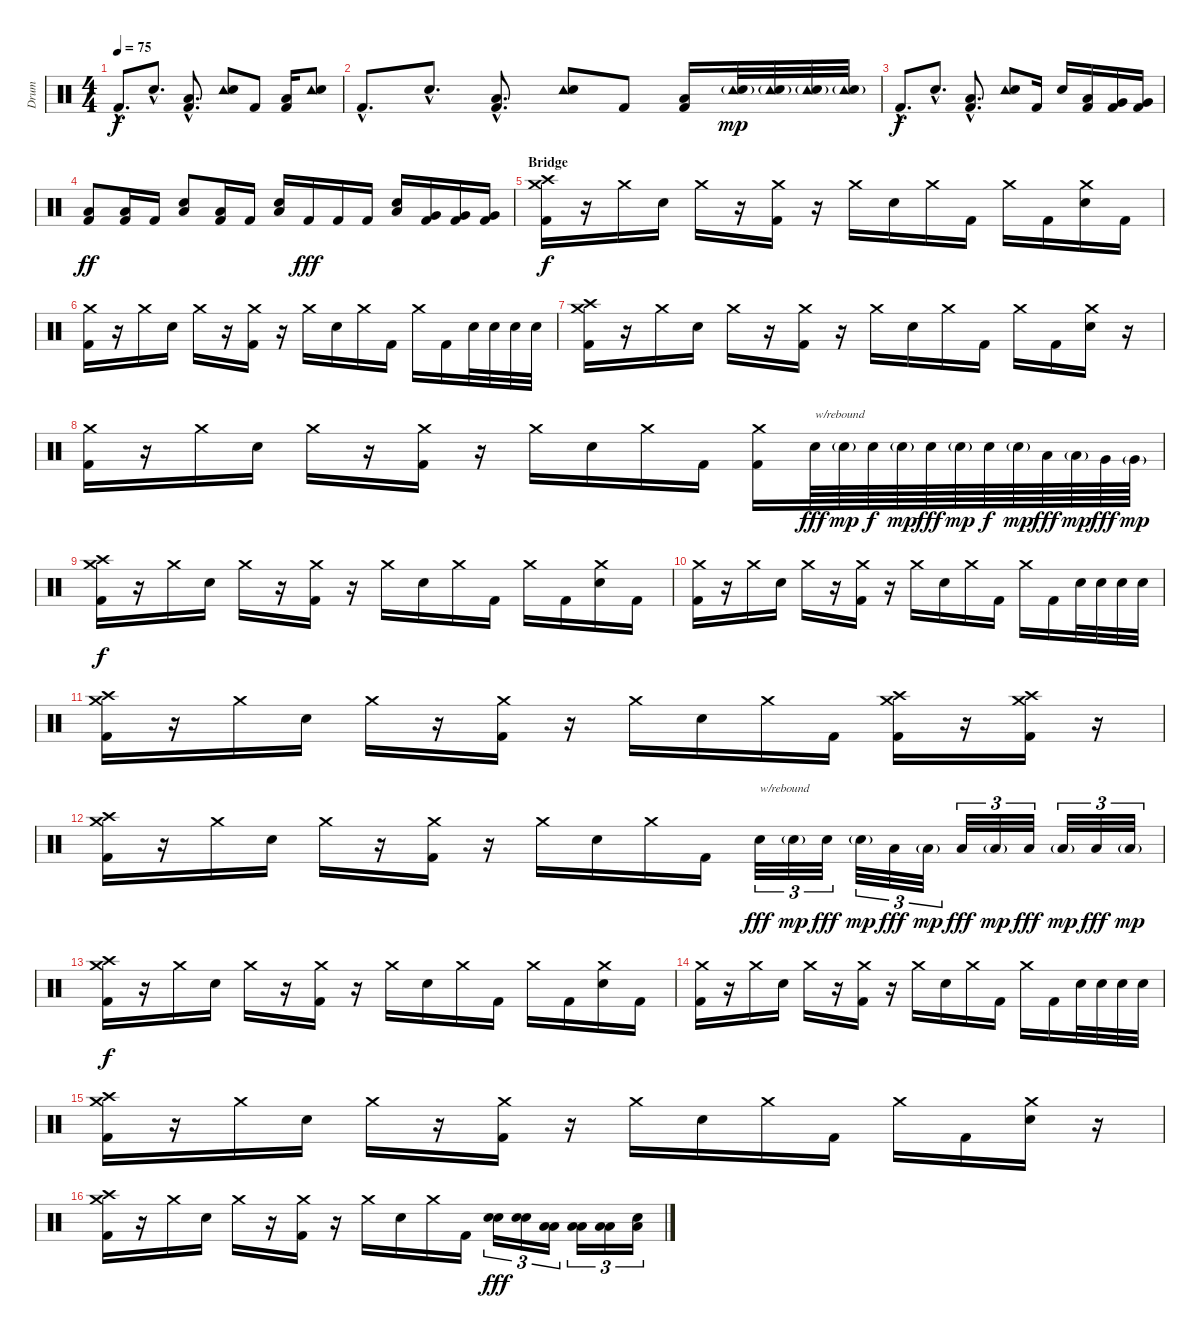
\track ("Drum" "Drum") {instrument percussion}
\staff {score}
\articulation defaults
\ts (4 4)
\tempo 75
\clef neutral
\ks c "Kick (hit) 2"{hac}.8{d dy f} "Snare (hit) 2"{hac}.8{d}
("Low Floor Tom (hit)"{hac} "Kick (hit) 2"{hac}).8{d} ("Tambourine (hit)" "Snare (hit) 2").8 "Kick (hit) 2".8 ("Low Tom (hit)" "Kick (hit) 2").16 ("Tambourine (hit)" "Snare (hit) 2").8 |
"Kick (hit) 2"{hac}.8{d} "Snare (hit) 2"{hac}.8{d} ("Low Floor Tom (hit)"{hac} "Kick (hit) 2"{hac}).8{d} ("Tambourine (hit)" "Snare (hit) 2").8 "Kick (hit) 2".8 ("Low Tom (hit)" "Kick (hit) 2").16 ("Tambourine (hit)" "Electric Snare (hit)"{g}).32{dy mp} ("Tambourine (hit)" "Electric Snare (hit)"{g}).32 ("Tambourine (hit)" "Electric Snare (hit)"{g}).32 ("Tambourine (hit)" "Electric Snare (hit)"{g}).32 |
"Kick (hit) 2"{hac}.8{d dy f} "Snare (hit) 2"{hac}.8{d} ("Low Floor Tom (hit)"{hac} "Kick (hit) 2"{hac}).8{d} ("Tambourine (hit)" "Snare (hit) 2").8 "Kick (hit) 2".16 "Snare (hit) 2".16 ("Low Tom (hit)" "Kick (hit) 2").16 ("Very Low Tom (hit)" "Kick (hit) 2").16 ("Very Low Tom (hit)" "Kick (hit) 2").16 |
("Low Tom (hit)" "Kick (hit) 2").8{dy ff} ("Low Tom (hit)" "Kick (hit) 2").16 "Kick (hit) 2".16 ("Low Tom (hit)" "Snare (hit) 2").8 ("Low Tom (hit)" "Kick (hit) 2").16 "Kick (hit) 2".16 ("Low Tom (hit)" "Snare (hit) 2").16 "Kick (hit) 2".16{dy fff} "Kick (hit) 2".16 "Kick (hit) 2".16 ("Low Tom (hit)" "Snare (hit) 2").16 ("Very Low Tom (hit)" "Kick (hit) 2").16 ("Very Low Tom (hit)" "Kick (hit) 2").16 ("Very Low Tom (hit)" "Kick (hit) 2").16 |
\section ("" "Bridge")
("Crash high (hit)" "Crash medium (hit)" "Kick (hit) 2").16{dy f volume 13} r.16 "Crash medium (hit)".16 "Snare (hit) 2".16 "Crash medium (hit)".16 r.16 ("Crash medium (hit)" "Kick (hit) 2").16 r.16 "Crash medium (hit)".16 "Snare (hit) 2".16 "Crash medium (hit)".16 "Kick (hit) 2".16 "Crash medium (hit)".16 "Kick (hit) 2".16 ("Crash medium (hit)" "Snare (hit) 2").16 "Kick (hit) 2".16 |
("Crash medium (hit)" "Kick (hit) 2").16 r.16 "Crash medium (hit)".16 "Snare (hit) 2".16 "Crash medium (hit)".16 r.16 ("Crash medium (hit)" "Kick (hit) 2").16 r.16 "Crash medium (hit)".16 "Snare (hit) 2".16 "Crash medium (hit)".16 "Kick (hit) 2".16 "Crash medium (hit)".16 "Kick (hit) 2".16 "Snare (hit) 2".32 "Snare (hit) 2".32 "Snare (hit) 2".32 "Snare (hit) 2".32 |
("Crash high (hit)" "Crash medium (hit)" "Kick (hit) 2").16 r.16 "Crash medium (hit)".16 "Snare (hit) 2".16 "Crash medium (hit)".16 r.16 ("Crash medium (hit)" "Kick (hit) 2").16 r.16 "Crash medium (hit)".16 "Snare (hit) 2".16 "Crash medium (hit)".16 "Kick (hit) 2".16 "Crash medium (hit)".16 "Kick (hit) 2".16 ("Crash medium (hit)" "Snare (hit) 2").16 r.16 |
("Crash medium (hit)" "Kick (hit) 2").16 r.16 "Crash medium (hit)".16 "Snare (hit) 2".16 "Crash medium (hit)".16 r.16 ("Crash medium (hit)" "Kick (hit) 2").16 r.16 "Crash medium (hit)".16 "Snare (hit) 2".16 "Crash medium (hit)".16 "Kick (hit) 2".16 ("Crash medium (hit)" "Kick (hit) 2").16 "Snare (hit) 2".64{txt "w/rebound" dy fff} "Snare (hit) 2"{g}.64{dy mp} "Snare (hit) 2".64{dy f} "Snare (hit) 2"{g}.64{dy mp} "Snare (hit) 2".64{dy fff} "Snare (hit) 2"{g}.64{dy mp} "Snare (hit) 2".64{dy f} "Snare (hit) 2"{g}.64{dy mp} "Low Tom (hit)".64{dy fff} "Low Tom (hit)"{g}.64{dy mp} "Very Low Tom (hit)".64{dy fff} "Very Low Tom (hit)"{g}.64{dy mp} |
("Crash high (hit)" "Crash medium (hit)" "Kick (hit) 2").16{dy f volume 13} r.16 "Crash medium (hit)".16 "Snare (hit) 2".16 "Crash medium (hit)".16 r.16 ("Crash medium (hit)" "Kick (hit) 2").16 r.16 "Crash medium (hit)".16 "Snare (hit) 2".16 "Crash medium (hit)".16 "Kick (hit) 2".16 "Crash medium (hit)".16 "Kick (hit) 2".16 ("Crash medium (hit)" "Snare (hit) 2").16 "Kick (hit) 2".16 |
("Crash medium (hit)" "Kick (hit) 2").16 r.16 "Crash medium (hit)".16 "Snare (hit) 2".16 "Crash medium (hit)".16 r.16 ("Crash medium (hit)" "Kick (hit) 2").16 r.16 "Crash medium (hit)".16 "Snare (hit) 2".16 "Crash medium (hit)".16 "Kick (hit) 2".16 "Crash medium (hit)".16 "Kick (hit) 2".16 "Snare (hit) 2".32 "Snare (hit) 2".32 "Snare (hit) 2".32 "Snare (hit) 2".32 |
("Crash high (hit)" "Crash medium (hit)" "Kick (hit) 2").16 r.16 "Crash medium (hit)".16 "Snare (hit) 2".16 "Crash medium (hit)".16 r.16 ("Crash medium (hit)" "Kick (hit) 2").16 r.16 "Crash medium (hit)".16 "Snare (hit) 2".16 "Crash medium (hit)".16 "Kick (hit) 2".16 ("Crash high (hit)" "Crash medium (hit)" "Kick (hit) 2").16 r.16 ("Crash high (hit)" "Crash medium (hit)" "Kick (hit) 2").16 r.16 |
("Crash high (hit)" "Crash medium (hit)" "Kick (hit) 2").16 r.16 "Crash medium (hit)".16 "Snare (hit) 2".16 "Crash medium (hit)".16 r.16 ("Crash medium (hit)" "Kick (hit) 2").16 r.16 "Crash medium (hit)".16 "Snare (hit) 2".16 "Crash medium (hit)".16 "Kick (hit) 2".16 "Snare (hit) 2".32{tu (3 2) txt "w/rebound" dy fff} "Snare (hit) 2"{g}.32{tu (3 2) dy mp} "Snare (hit) 2".32{tu (3 2) dy fff} "Snare (hit) 2"{g}.32{tu (3 2) dy mp} "Low Tom (hit)".32{tu (3 2) dy fff} "Low Tom (hit)"{g}.32{tu (3 2) dy mp} "Low Tom (hit)".32{tu (3 2) dy fff} "Low Tom (hit)"{g}.32{tu (3 2) dy mp} "Low Floor Tom (hit)".32{tu (3 2) dy fff} "Low Floor Tom (hit)"{g}.32{tu (3 2) dy mp} "Low Floor Tom (hit)".32{tu (3 2) dy fff} "Low Floor Tom (hit)"{g}.32{tu (3 2) dy mp} |
("Crash high (hit)" "Crash medium (hit)" "Kick (hit) 2").16{dy f volume 13} r.16 "Crash medium (hit)".16 "Snare (hit) 2".16 "Crash medium (hit)".16 r.16 ("Crash medium (hit)" "Kick (hit) 2").16 r.16 "Crash medium (hit)".16 "Snare (hit) 2".16 "Crash medium (hit)".16 "Kick (hit) 2".16 "Crash medium (hit)".16 "Kick (hit) 2".16 ("Crash medium (hit)" "Snare (hit) 2").16 "Kick (hit) 2".16 |
("Crash medium (hit)" "Kick (hit) 2").16 r.16 "Crash medium (hit)".16 "Snare (hit) 2".16 "Crash medium (hit)".16 r.16 ("Crash medium (hit)" "Kick (hit) 2").16 r.16 "Crash medium (hit)".16 "Snare (hit) 2".16 "Crash medium (hit)".16 "Kick (hit) 2".16 "Crash medium (hit)".16 "Kick (hit) 2".16 "Snare (hit) 2".32 "Snare (hit) 2".32 "Snare (hit) 2".32 "Snare (hit) 2".32 |
("Crash high (hit)" "Crash medium (hit)" "Kick (hit) 2").16 r.16 "Crash medium (hit)".16 "Snare (hit) 2".16 "Crash medium (hit)".16 r.16 ("Crash medium (hit)" "Kick (hit) 2").16 r.16 "Crash medium (hit)".16 "Snare (hit) 2".16 "Crash medium (hit)".16 "Kick (hit) 2".16 "Crash medium (hit)".16 "Kick (hit) 2".16 ("Crash medium (hit)" "Snare (hit) 2").16 r.16 |
("Crash high (hit)" "Crash medium (hit)" "Kick (hit) 2").16 r.16 "Crash medium (hit)".16 "Snare (hit) 2".16 "Crash medium (hit)".16 r.16 ("Crash medium (hit)" "Kick (hit) 2").16 r.16 "Crash medium (hit)".16 "Snare (hit) 2".16 "Crash medium (hit)".16 "Kick (hit) 2".16 ("Snare (hit) 2" "Snare (hit) 2").16{tu (3 2) bu 60 dy fff} ("Snare (hit) 2" "Snare (hit) 2").16{tu (3 2) bu 60} ("Low Tom (hit)" "Low Tom (hit)").16{tu (3 2) bu 60} ("Low Tom (hit)" "Low Tom (hit)").16{tu (3 2) bu 60} ("Low Floor Tom (hit)" "Low Floor Tom (hit)").16{tu (3 2) bu 60} ("Snare (hit)" "Low Floor Tom (hit)").16{tu (3 2) bu 60}
